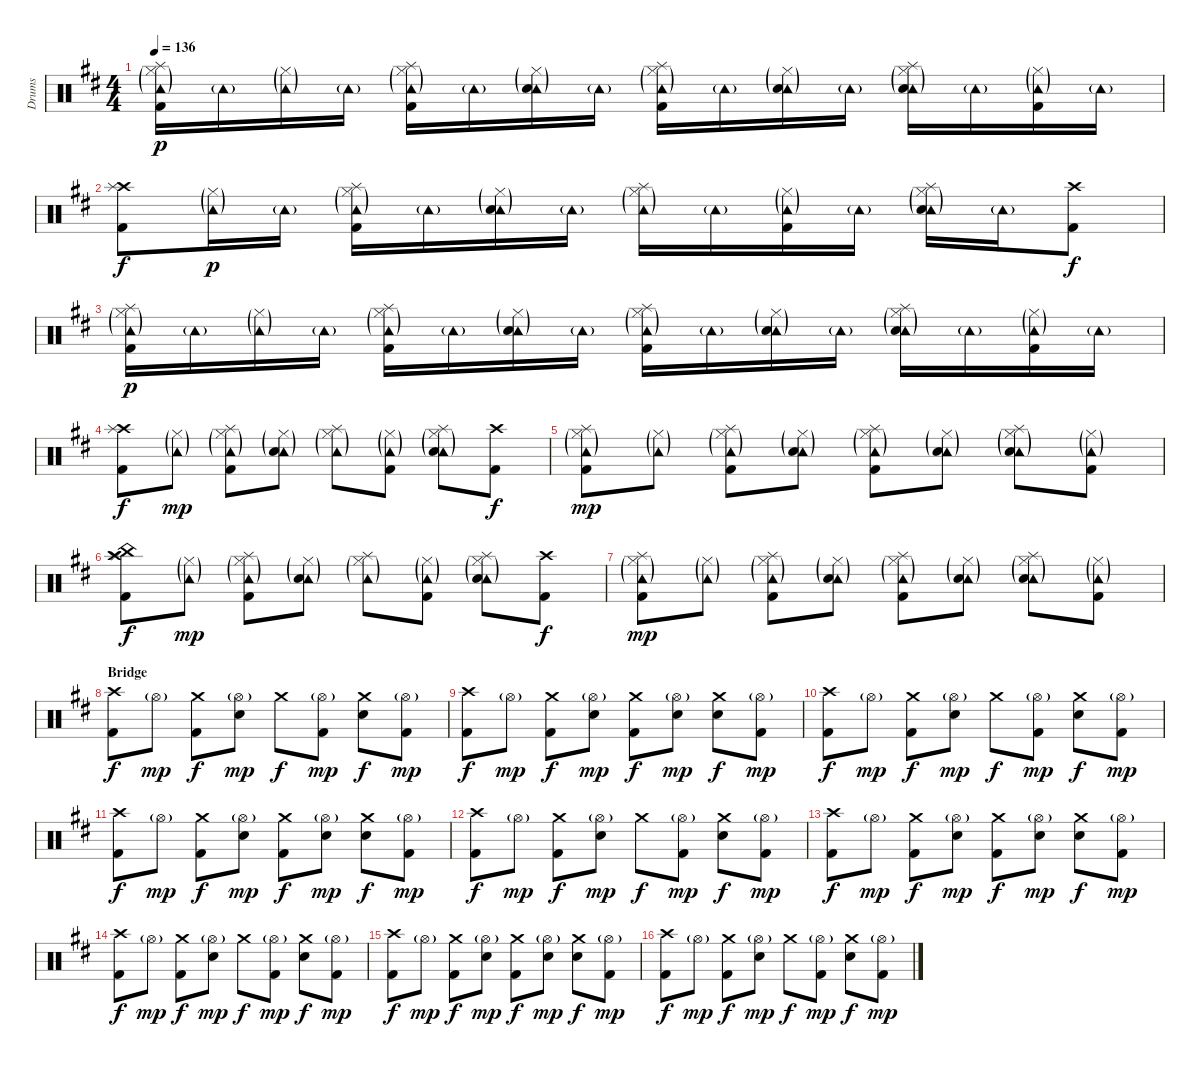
\track ("Drums" "Drums") {instrument percussion}
\staff {score}
\articulation defaults
\ts (4 4)
\tempo 136
\clef neutral
\ks d
("Hi-Hat (closed)"{g} "Splash (hit)" "Tambourine (hit)"{g} "Kick (hit) 2").16{dy p} "Tambourine (hit)"{g}.16 ("Hi-Hat (closed)"{g} "Tambourine (hit)"{g}).16 "Tambourine (hit)"{g}.16 ("Hi-Hat (closed)"{g} "Splash (hit)" "Tambourine (hit)"{g} "Kick (hit) 2").16 "Tambourine (hit)"{g}.16 ("Hi-Hat (closed)"{g} "Tambourine (hit)"{g} "Snare (hit) 2").16 "Tambourine (hit)"{g}.16 ("Hi-Hat (closed)"{g} "Splash (hit)" "Tambourine (hit)"{g} "Kick (hit) 2").16 "Tambourine (hit)"{g}.16 ("Hi-Hat (closed)"{g} "Tambourine (hit)"{g} "Snare (hit) 2").16 "Tambourine (hit)"{g}.16 ("Hi-Hat (closed)"{g} "Splash (hit)" "Tambourine (hit)"{g} "Snare (hit) 2").16 "Tambourine (hit)"{g}.16 ("Hi-Hat (closed)"{g} "Tambourine (hit)"{g} "Kick (hit) 2").16 "Tambourine (hit)"{g}.16 |
("Crash high (hit)" "Splash (hit)" "Kick (hit) 2").8{dy f} ("Hi-Hat (closed)"{g} "Tambourine (hit)"{g}).16{dy p} "Tambourine (hit)"{g}.16 ("Hi-Hat (closed)"{g} "Splash (hit)" "Tambourine (hit)"{g} "Kick (hit) 2").16 "Tambourine (hit)"{g}.16 ("Hi-Hat (closed)"{g} "Tambourine (hit)"{g} "Snare (hit) 2").16 "Tambourine (hit)"{g}.16 ("Hi-Hat (closed)"{g} "Splash (hit)" "Tambourine (hit)"{g}).16 "Tambourine (hit)"{g}.16 ("Hi-Hat (closed)"{g} "Tambourine (hit)"{g} "Kick (hit) 2").16 "Tambourine (hit)"{g}.16 ("Hi-Hat (closed)"{g} "Splash (hit)" "Tambourine (hit)"{g} "Snare (hit) 2").16 "Tambourine (hit)"{g}.16 ("Crash high (hit)" "Kick (hit) 2").8{dy f} |
("Hi-Hat (closed)"{g} "Splash (hit)" "Tambourine (hit)"{g} "Kick (hit) 2").16{dy p} "Tambourine (hit)"{g}.16 ("Hi-Hat (closed)"{g} "Tambourine (hit)"{g}).16 "Tambourine (hit)"{g}.16 ("Hi-Hat (closed)"{g} "Splash (hit)" "Tambourine (hit)"{g} "Kick (hit) 2").16 "Tambourine (hit)"{g}.16 ("Hi-Hat (closed)"{g} "Tambourine (hit)"{g} "Snare (hit) 2").16 "Tambourine (hit)"{g}.16 ("Hi-Hat (closed)"{g} "Splash (hit)" "Tambourine (hit)"{g} "Kick (hit) 2").16 "Tambourine (hit)"{g}.16 ("Hi-Hat (closed)"{g} "Tambourine (hit)"{g} "Snare (hit) 2").16 "Tambourine (hit)"{g}.16 ("Hi-Hat (closed)"{g} "Splash (hit)" "Tambourine (hit)"{g} "Snare (hit) 2").16 "Tambourine (hit)"{g}.16 ("Hi-Hat (closed)"{g} "Tambourine (hit)"{g} "Kick (hit) 2").16 "Tambourine (hit)"{g}.16 |
("Crash high (hit)" "Splash (hit)" "Kick (hit) 2").8{dy f} ("Hi-Hat (closed)"{g} "Tambourine (hit)"{g}).8{dy mp} ("Hi-Hat (closed)"{g} "Splash (hit)" "Tambourine (hit)"{g} "Kick (hit) 2").8 ("Hi-Hat (closed)"{g} "Tambourine (hit)"{g} "Snare (hit) 2").8 ("Hi-Hat (closed)"{g} "Splash (hit)" "Tambourine (hit)"{g}).8 ("Hi-Hat (closed)"{g} "Tambourine (hit)"{g} "Kick (hit) 2").8 ("Hi-Hat (closed)"{g} "Splash (hit)" "Tambourine (hit)"{g} "Snare (hit) 2").8 ("Crash high (hit)" "Kick (hit) 2").8{dy f} |
("Hi-Hat (closed)"{g} "Splash (hit)" "Tambourine (hit)"{g} "Kick (hit) 2").8{dy mp} ("Hi-Hat (closed)"{g} "Tambourine (hit)"{g}).8 ("Hi-Hat (closed)"{g} "Splash (hit)" "Tambourine (hit)"{g} "Kick (hit) 2").8 ("Hi-Hat (closed)"{g} "Tambourine (hit)"{g} "Snare (hit) 2").8 ("Hi-Hat (closed)"{g} "Splash (hit)" "Tambourine (hit)"{g} "Kick (hit) 2").8 ("Hi-Hat (closed)"{g} "Tambourine (hit)"{g} "Snare (hit) 2").8 ("Hi-Hat (closed)"{g} "Splash (hit)" "Tambourine (hit)"{g} "Snare (hit) 2").8 ("Hi-Hat (closed)"{g} "Tambourine (hit)"{g} "Kick (hit) 2").8 |
("Crash high (hit)" "China (hit)" "Splash (hit)" "Kick (hit) 2").8{dy f} ("Hi-Hat (closed)"{g} "Tambourine (hit)"{g}).8{dy mp} ("Hi-Hat (closed)"{g} "Splash (hit)" "Tambourine (hit)"{g} "Kick (hit) 2").8 ("Hi-Hat (closed)"{g} "Tambourine (hit)"{g} "Snare (hit) 2").8 ("Hi-Hat (closed)"{g} "Splash (hit)" "Tambourine (hit)"{g}).8 ("Hi-Hat (closed)"{g} "Tambourine (hit)"{g} "Kick (hit) 2").8 ("Hi-Hat (closed)"{g} "Splash (hit)" "Tambourine (hit)"{g} "Snare (hit) 2").8 ("Crash high (hit)" "Kick (hit) 2").8{dy f} |
("Hi-Hat (closed)"{g} "Splash (hit)" "Tambourine (hit)"{g} "Kick (hit) 2").8{dy mp} ("Hi-Hat (closed)"{g} "Tambourine (hit)"{g}).8 ("Hi-Hat (closed)"{g} "Splash (hit)" "Tambourine (hit)"{g} "Kick (hit) 2").8 ("Hi-Hat (closed)"{g} "Tambourine (hit)"{g} "Snare (hit) 2").8 ("Hi-Hat (closed)"{g} "Splash (hit)" "Tambourine (hit)"{g} "Kick (hit) 2").8 ("Hi-Hat (closed)"{g} "Tambourine (hit)"{g} "Snare (hit) 2").8 ("Hi-Hat (closed)"{g} "Splash (hit)" "Tambourine (hit)"{g} "Snare (hit) 2").8 ("Hi-Hat (closed)"{g} "Tambourine (hit)"{g} "Kick (hit) 2").8 |
\section ("" "Bridge")
("Crash high (hit)" "Kick (hit) 2").8{dy f} "Hi-Hat (open)"{g}.8{dy mp} ("Crash medium (hit)" "Kick (hit) 2").8{dy f} ("Hi-Hat (open)"{g} "Snare (hit) 2").8{dy mp} "Crash medium (hit)".8{dy f} ("Hi-Hat (open)"{g} "Kick (hit) 2").8{dy mp} ("Crash medium (hit)" "Snare (hit) 2").8{dy f} ("Hi-Hat (open)"{g} "Kick (hit) 2").8{dy mp} |
("Crash high (hit)" "Kick (hit) 2").8{dy f} "Hi-Hat (open)"{g}.8{dy mp} ("Crash medium (hit)" "Kick (hit) 2").8{dy f} ("Hi-Hat (open)"{g} "Snare (hit) 2").8{dy mp} ("Crash medium (hit)" "Kick (hit) 2").8{dy f} ("Hi-Hat (open)"{g} "Snare (hit) 2").8{dy mp} ("Crash medium (hit)" "Snare (hit) 2").8{dy f} ("Hi-Hat (open)"{g} "Kick (hit) 2").8{dy mp} |
("Crash high (hit)" "Kick (hit) 2").8{dy f} "Hi-Hat (open)"{g}.8{dy mp} ("Crash medium (hit)" "Kick (hit) 2").8{dy f} ("Hi-Hat (open)"{g} "Snare (hit) 2").8{dy mp} "Crash medium (hit)".8{dy f} ("Hi-Hat (open)"{g} "Kick (hit) 2").8{dy mp} ("Crash medium (hit)" "Snare (hit) 2").8{dy f} ("Hi-Hat (open)"{g} "Kick (hit) 2").8{dy mp} |
("Crash high (hit)" "Kick (hit) 2").8{dy f} "Hi-Hat (open)"{g}.8{dy mp} ("Crash medium (hit)" "Kick (hit) 2").8{dy f} ("Hi-Hat (open)"{g} "Snare (hit) 2").8{dy mp} ("Crash medium (hit)" "Kick (hit) 2").8{dy f} ("Hi-Hat (open)"{g} "Snare (hit) 2").8{dy mp} ("Crash medium (hit)" "Snare (hit) 2").8{dy f} ("Hi-Hat (open)"{g} "Kick (hit) 2").8{dy mp} |
("Crash high (hit)" "Kick (hit) 2").8{dy f} "Hi-Hat (open)"{g}.8{dy mp} ("Crash medium (hit)" "Kick (hit) 2").8{dy f} ("Hi-Hat (open)"{g} "Snare (hit) 2").8{dy mp} "Crash medium (hit)".8{dy f} ("Hi-Hat (open)"{g} "Kick (hit) 2").8{dy mp} ("Crash medium (hit)" "Snare (hit) 2").8{dy f} ("Hi-Hat (open)"{g} "Kick (hit) 2").8{dy mp} |
("Crash high (hit)" "Kick (hit) 2").8{dy f} "Hi-Hat (open)"{g}.8{dy mp} ("Crash medium (hit)" "Kick (hit) 2").8{dy f} ("Hi-Hat (open)"{g} "Snare (hit) 2").8{dy mp} ("Crash medium (hit)" "Kick (hit) 2").8{dy f} ("Hi-Hat (open)"{g} "Snare (hit) 2").8{dy mp} ("Crash medium (hit)" "Snare (hit) 2").8{dy f} ("Hi-Hat (open)"{g} "Kick (hit) 2").8{dy mp} |
("Crash high (hit)" "Kick (hit) 2").8{dy f} "Hi-Hat (open)"{g}.8{dy mp} ("Crash medium (hit)" "Kick (hit) 2").8{dy f} ("Hi-Hat (open)"{g} "Snare (hit) 2").8{dy mp} "Crash medium (hit)".8{dy f} ("Hi-Hat (open)"{g} "Kick (hit) 2").8{dy mp} ("Crash medium (hit)" "Snare (hit) 2").8{dy f} ("Hi-Hat (open)"{g} "Kick (hit) 2").8{dy mp} |
("Crash high (hit)" "Kick (hit) 2").8{dy f} "Hi-Hat (open)"{g}.8{dy mp} ("Crash medium (hit)" "Kick (hit) 2").8{dy f} ("Hi-Hat (open)"{g} "Snare (hit) 2").8{dy mp} ("Crash medium (hit)" "Kick (hit) 2").8{dy f} ("Hi-Hat (open)"{g} "Snare (hit) 2").8{dy mp} ("Crash medium (hit)" "Snare (hit) 2").8{dy f} ("Hi-Hat (open)"{g} "Kick (hit) 2").8{dy mp} |
("Crash high (hit)" "Kick (hit) 2").8{dy f} "Hi-Hat (open)"{g}.8{dy mp} ("Crash medium (hit)" "Kick (hit) 2").8{dy f} ("Hi-Hat (open)"{g} "Snare (hit) 2").8{dy mp} "Crash medium (hit)".8{dy f} ("Hi-Hat (open)"{g} "Kick (hit) 2").8{dy mp} ("Crash medium (hit)" "Snare (hit) 2").8{dy f} ("Hi-Hat (open)"{g} "Kick (hit) 2").8{dy mp}
